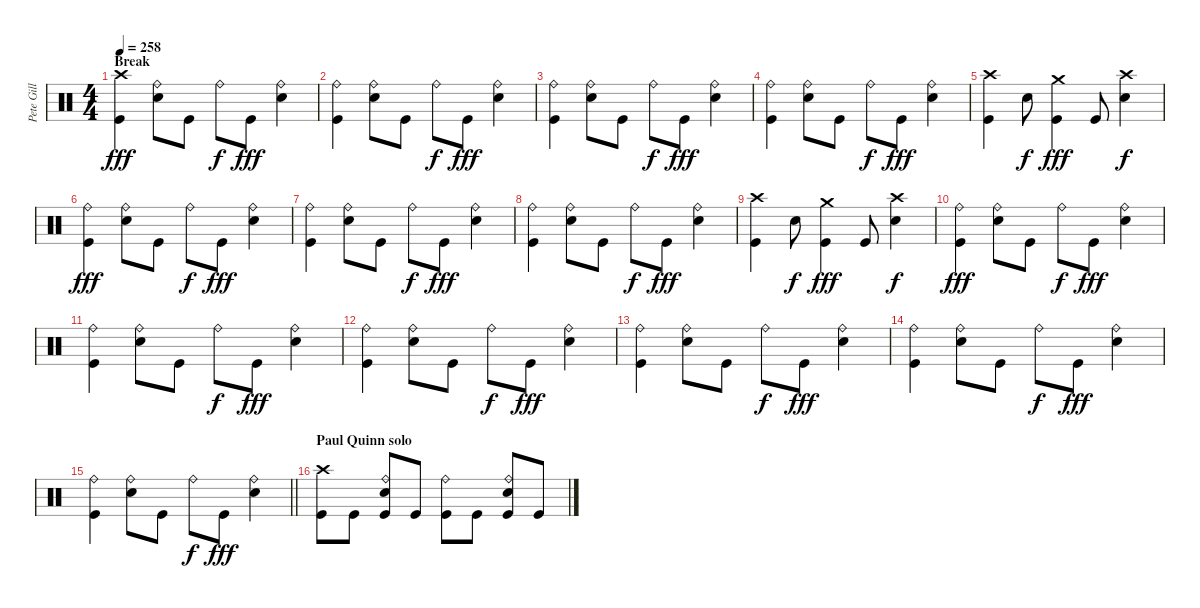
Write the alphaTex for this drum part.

\track ("Pete Gill" "Pete Gill") {instrument percussion}
\staff {score}
\articulation defaults
\ts (4 4)
\section ("" "Break")
\tempo 258
\clef neutral
\ks c
("Crash high (hit)" "Kick (hit)").4{dy fff} ("Ride (bell)" "Electric Snare (hit)").8 "Kick (hit)".8 "Ride (bell)".8{dy f} "Kick (hit)".8{dy fff} ("Ride (bell)" "Electric Snare (hit)").4 |
("Ride (bell)" "Kick (hit)").4 ("Ride (bell)" "Electric Snare (hit)").8 "Kick (hit)".8 "Ride (bell)".8{dy f} "Kick (hit)".8{dy fff} ("Ride (bell)" "Electric Snare (hit)").4 |
("Ride (bell)" "Kick (hit)").4 ("Ride (bell)" "Electric Snare (hit)").8 "Kick (hit)".8 "Ride (bell)".8{dy f} "Kick (hit)".8{dy fff} ("Ride (bell)" "Electric Snare (hit)").4 |
("Ride (bell)" "Kick (hit)").4 ("Ride (bell)" "Electric Snare (hit)").8 "Kick (hit)".8 "Ride (bell)".8{dy f} "Kick (hit)".8{dy fff} ("Ride (bell)" "Electric Snare (hit)").4 |
("Crash high (hit)" "Kick (hit)").4 "Electric Snare (hit)".8{dy f} ("Crash medium (hit)" "Kick (hit)").4{dy fff} "Kick (hit)".8 ("Crash high (hit)" "Electric Snare (hit)").4{dy f} |
("Ride (bell)" "Kick (hit)").4{dy fff} ("Ride (bell)" "Electric Snare (hit)").8 "Kick (hit)".8 "Ride (bell)".8{dy f} "Kick (hit)".8{dy fff} ("Ride (bell)" "Electric Snare (hit)").4 |
("Ride (bell)" "Kick (hit)").4 ("Ride (bell)" "Electric Snare (hit)").8 "Kick (hit)".8 "Ride (bell)".8{dy f} "Kick (hit)".8{dy fff} ("Ride (bell)" "Electric Snare (hit)").4 |
("Ride (bell)" "Kick (hit)").4 ("Ride (bell)" "Electric Snare (hit)").8 "Kick (hit)".8 "Ride (bell)".8{dy f} "Kick (hit)".8{dy fff} ("Ride (bell)" "Electric Snare (hit)").4 |
("Crash high (hit)" "Kick (hit)").4 "Electric Snare (hit)".8{dy f} ("Crash medium (hit)" "Kick (hit)").4{dy fff} "Kick (hit)".8 ("Crash high (hit)" "Electric Snare (hit)").4{dy f} |
("Ride (bell)" "Kick (hit)").4{dy fff} ("Ride (bell)" "Electric Snare (hit)").8 "Kick (hit)".8 "Ride (bell)".8{dy f} "Kick (hit)".8{dy fff} ("Ride (bell)" "Electric Snare (hit)").4 |
("Ride (bell)" "Kick (hit)").4 ("Ride (bell)" "Electric Snare (hit)").8 "Kick (hit)".8 "Ride (bell)".8{dy f} "Kick (hit)".8{dy fff} ("Ride (bell)" "Electric Snare (hit)").4 |
("Ride (bell)" "Kick (hit)").4 ("Ride (bell)" "Electric Snare (hit)").8 "Kick (hit)".8 "Ride (bell)".8{dy f} "Kick (hit)".8{dy fff} ("Ride (bell)" "Electric Snare (hit)").4 |
("Ride (bell)" "Kick (hit)").4 ("Ride (bell)" "Electric Snare (hit)").8 "Kick (hit)".8 "Ride (bell)".8{dy f} "Kick (hit)".8{dy fff} ("Ride (bell)" "Electric Snare (hit)").4 |
("Ride (bell)" "Kick (hit)").4 ("Ride (bell)" "Electric Snare (hit)").8 "Kick (hit)".8 "Ride (bell)".8{dy f} "Kick (hit)".8{dy fff} ("Ride (bell)" "Electric Snare (hit)").4 |
\barLineRight lightlight
("Ride (bell)" "Kick (hit)").4 ("Ride (bell)" "Electric Snare (hit)").8 "Kick (hit)".8 "Ride (bell)".8{dy f} "Kick (hit)".8{dy fff} ("Ride (bell)" "Electric Snare (hit)").4 |
\section ("" "Paul Quinn solo")
("Crash high (hit)" "Kick (hit)").8 "Kick (hit)".8 ("Ride (bell)" "Electric Snare (hit)" "Kick (hit)").8 "Kick (hit)".8 ("Ride (bell)" "Kick (hit)").8 "Kick (hit)".8 ("Ride (bell)" "Electric Snare (hit)" "Kick (hit)").8 "Kick (hit)".8
